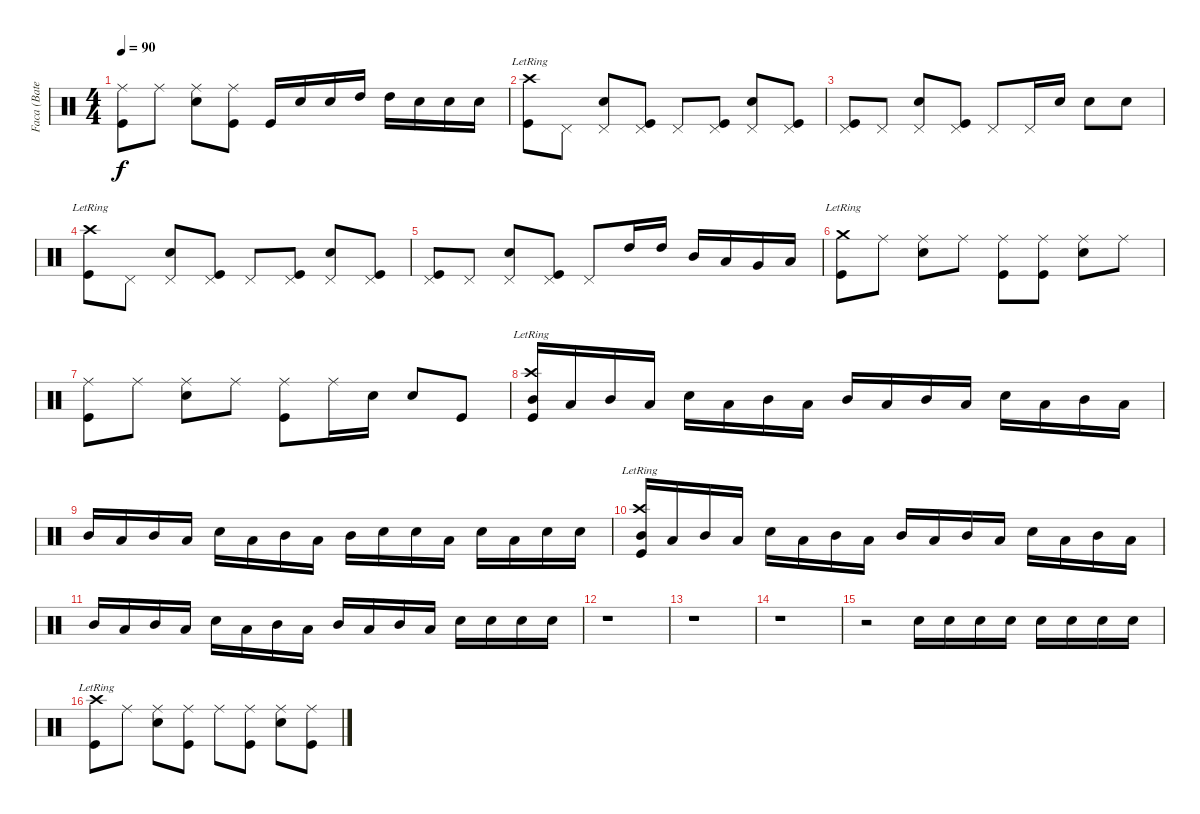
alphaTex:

\track ("Faca (Bateria)" "Faca (Bate") {instrument percussion}
\staff {score}
\articulation defaults
\ts (4 4)
\tempo 90
\clef neutral
\ks c
("Ride (middle)" "Kick (hit)").8{dy f} "Ride (middle)".8 ("Ride (middle)" "Snare (hit) 2").8 ("Ride (middle)" "Kick (hit)").8 "Kick (hit)".16 "Snare (hit) 2".16 "Snare (hit) 2".16 "High Tom (hit)".16 "High Tom (hit)".16 "Snare (hit) 2".16 "Snare (hit) 2".16 "Snare (hit) 2".16 |
("Crash high (hit)"{lr} "Kick (hit)").8 "Pedal Hi-Hat (hit)".8 ("Pedal Hi-Hat (hit)" "Snare (hit) 2").8 ("Pedal Hi-Hat (hit)" "Kick (hit)").8 "Pedal Hi-Hat (hit)".8 ("Pedal Hi-Hat (hit)" "Kick (hit)").8 ("Pedal Hi-Hat (hit)" "Snare (hit) 2").8 ("Pedal Hi-Hat (hit)" "Kick (hit)").8 |
("Pedal Hi-Hat (hit)" "Kick (hit)").8 "Pedal Hi-Hat (hit)".8 ("Pedal Hi-Hat (hit)" "Snare (hit) 2").8 ("Pedal Hi-Hat (hit)" "Kick (hit)").8 "Pedal Hi-Hat (hit)".8 "Pedal Hi-Hat (hit)".16 "Snare (hit) 2".16 "Snare (hit) 2".8 "Snare (hit) 2".8 |
("Crash high (hit)"{lr} "Kick (hit)").8 "Pedal Hi-Hat (hit)".8 ("Pedal Hi-Hat (hit)" "Snare (hit) 2").8 ("Pedal Hi-Hat (hit)" "Kick (hit)").8 "Pedal Hi-Hat (hit)".8 ("Pedal Hi-Hat (hit)" "Kick (hit)").8 ("Pedal Hi-Hat (hit)" "Snare (hit) 2").8 ("Pedal Hi-Hat (hit)" "Kick (hit)").8 |
("Pedal Hi-Hat (hit)" "Kick (hit)").8 "Pedal Hi-Hat (hit)".8 ("Pedal Hi-Hat (hit)" "Snare (hit) 2").8 ("Pedal Hi-Hat (hit)" "Kick (hit)").8 "Pedal Hi-Hat (hit)".8 "High Tom (hit)".16 "High Tom (hit)".16 "Mid Tom (hit)".16 "Low Tom (hit)".16 "Very Low Tom (hit)".16 "Low Floor Tom (hit)".16 |
("Crash medium (hit)"{lr} "Kick (hit)").8 "Ride (middle)".8 ("Ride (middle)" "Snare (hit) 2").8 "Ride (middle)".8 ("Ride (middle)" "Kick (hit)").8 ("Ride (middle)" "Kick (hit)").8 ("Ride (middle)" "Snare (hit) 2").8 "Ride (middle)".8 |
("Ride (middle)" "Kick (hit)").8 "Ride (middle)".8 ("Ride (middle)" "Snare (hit) 2").8 "Ride (middle)".8 ("Ride (middle)" "Kick (hit)").8 "Ride (middle)".16 "Snare (hit) 2".16 "Snare (hit) 2".8 "Kick (hit)".8 |
("Crash high (hit)"{lr} "Mid Tom (hit)" "Kick (hit)").16 "Low Tom (hit)".16 "Mid Tom (hit)".16 "Low Tom (hit)".16 "Snare (hit) 2".16 "Low Tom (hit)".16 "Mid Tom (hit)".16 "Low Tom (hit)".16 "Mid Tom (hit)".16 "Low Tom (hit)".16 "Mid Tom (hit)".16 "Low Tom (hit)".16 "Snare (hit) 2".16 "Low Tom (hit)".16 "Mid Tom (hit)".16 "Low Tom (hit)".16 |
"Mid Tom (hit)".16 "Low Tom (hit)".16 "Mid Tom (hit)".16 "Low Tom (hit)".16 "Snare (hit) 2".16 "Low Tom (hit)".16 "Mid Tom (hit)".16 "Low Tom (hit)".16 "Mid Tom (hit)".16 "Snare (hit) 2".16 "Snare (hit) 2".16 "Low Tom (hit)".16 "Snare (hit) 2".16 "Low Tom (hit)".16 "Snare (hit) 2".16 "Snare (hit) 2".16 |
("Crash high (hit)"{lr} "Mid Tom (hit)" "Kick (hit)").16 "Low Tom (hit)".16 "Mid Tom (hit)".16 "Low Tom (hit)".16 "Snare (hit) 2".16 "Low Tom (hit)".16 "Mid Tom (hit)".16 "Low Tom (hit)".16 "Mid Tom (hit)".16 "Low Tom (hit)".16 "Mid Tom (hit)".16 "Low Tom (hit)".16 "Snare (hit) 2".16 "Low Tom (hit)".16 "Mid Tom (hit)".16 "Low Tom (hit)".16 |
"Mid Tom (hit)".16 "Low Tom (hit)".16 "Mid Tom (hit)".16 "Low Tom (hit)".16 "Snare (hit) 2".16 "Low Tom (hit)".16 "Mid Tom (hit)".16 "Low Tom (hit)".16 "Mid Tom (hit)".16 "Low Tom (hit)".16 "Mid Tom (hit)".16 "Low Tom (hit)".16 "Snare (hit) 2".16 "Snare (hit) 2".16 "Snare (hit) 2".16 "Snare (hit) 2".16 |
r.1 |
r.1 |
r.1 |
r.2 "Snare (hit) 2".16 "Snare (hit) 2".16 "Snare (hit) 2".16 "Snare (hit) 2".16 "Snare (hit) 2".16 "Snare (hit) 2".16 "Snare (hit) 2".16 "Snare (hit) 2".16 |
("Crash high (hit)"{lr} "Kick (hit)").8 "Ride (middle)".8 ("Ride (middle)" "Snare (hit) 2").8 ("Ride (middle)" "Kick (hit)").8 "Ride (middle)".8 ("Ride (middle)" "Kick (hit)").8 ("Ride (middle)" "Snare (hit) 2").8 ("Ride (middle)" "Kick (hit)").8
